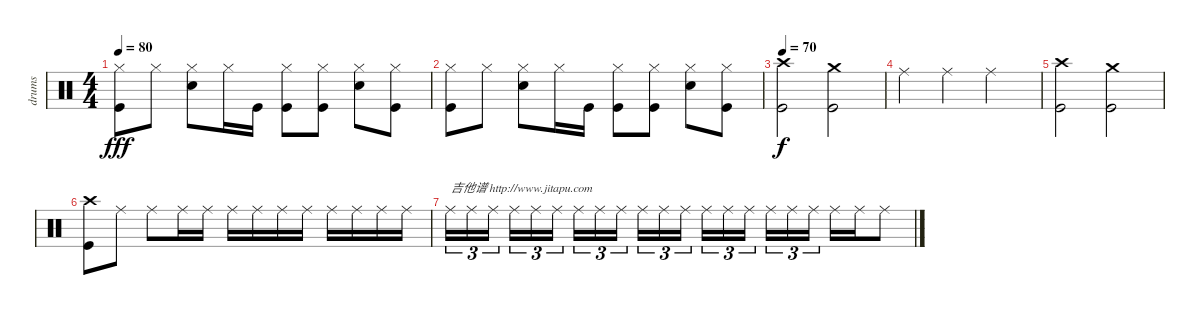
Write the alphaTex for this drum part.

\track ("drums" "drums") {instrument percussion}
\staff {score}
\articulation defaults
\ts (4 4)
\tempo 80
\clef neutral
\ks c
("Hi-Hat (closed)" "Kick (hit)").8{dy fff} "Hi-Hat (closed)".8 ("Hi-Hat (closed)" "Snare (hit) 2").8 "Hi-Hat (closed)".16 "Kick (hit)".16 ("Hi-Hat (closed)" "Kick (hit)").8 ("Hi-Hat (closed)" "Kick (hit)").8 ("Hi-Hat (closed)" "Snare (hit) 2").8 ("Hi-Hat (closed)" "Kick (hit)").8 |
("Hi-Hat (closed)" "Kick (hit)").8 "Hi-Hat (closed)".8 ("Hi-Hat (closed)" "Snare (hit) 2").8 "Hi-Hat (closed)".16 "Kick (hit)".16 ("Hi-Hat (closed)" "Kick (hit)").8 ("Hi-Hat (closed)" "Kick (hit)").8 ("Hi-Hat (closed)" "Snare (hit) 2").8 ("Hi-Hat (closed)" "Kick (hit)").8 |
\tempo 70
("Crash high (hit)" "Kick (hit)").2{dy f} ("Crash medium (hit)" "Kick (hit)").2 |
"Ride (middle)".4 "Ride (middle)".4 "Ride (middle)".2 |
("Crash high (hit)" "Kick (hit)").2 ("Crash medium (hit)" "Kick (hit)").2 |
("Crash high (hit)" "Kick (hit)").8 "Ride (middle)".8 "Ride (middle)".8 "Ride (middle)".16 "Ride (middle)".16 "Ride (middle)".16 "Ride (middle)".16 "Ride (middle)".16 "Ride (middle)".16 "Ride (middle)".16 "Ride (middle)".16 "Ride (middle)".16 "Ride (middle)".16 |
"Ride (middle)".16{tu (3 2) txt "吉他谱 http://www.jitapu.com"} "Ride (middle)".16{tu (3 2)} "Ride (middle)".16{tu (3 2) beam splitsecondary} "Ride (middle)".16{tu (3 2)} "Ride (middle)".16{tu (3 2)} "Ride (middle)".16{tu (3 2)} "Ride (middle)".16{tu (3 2)} "Ride (middle)".16{tu (3 2)} "Ride (middle)".16{tu (3 2) beam splitsecondary} "Ride (middle)".16{tu (3 2)} "Ride (middle)".16{tu (3 2)} "Ride (middle)".16{tu (3 2)} "Ride (middle)".16{tu (3 2)} "Ride (middle)".16{tu (3 2)} "Ride (middle)".16{tu (3 2) beam splitsecondary} "Ride (middle)".16{tu (3 2)} "Ride (middle)".16{tu (3 2)} "Ride (middle)".16{tu (3 2)} "Ride (middle)".16 "Ride (middle)".16 "Ride (middle)".8
